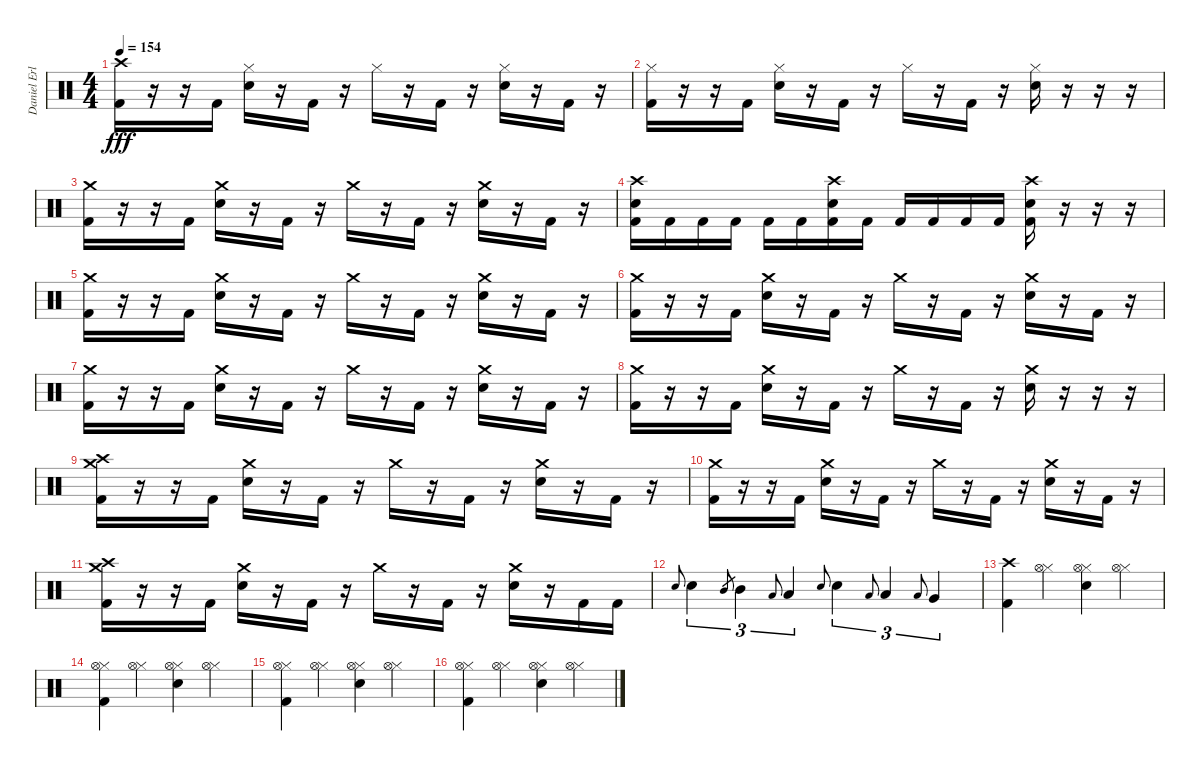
\track ("Daniel Erlandsson" "Daniel Erl") {instrument percussion}
\staff {score}
\articulation defaults
\ts (4 4)
\tempo 154
\clef neutral
\ks c
("Crash high (hit)" "Kick (hit) 2").16{dy fff} r.16 r.16 "Kick (hit) 2".16 ("Hi-Hat (closed)" "Electric Snare (hit)").16 r.16 "Kick (hit) 2".16 r.16 "Hi-Hat (closed)".16 r.16 "Kick (hit) 2".16 r.16 ("Hi-Hat (closed)" "Electric Snare (hit)").16 r.16 "Kick (hit) 2".16 r.16 |
("Hi-Hat (closed)" "Kick (hit) 2").16 r.16 r.16 "Kick (hit) 2".16 ("Hi-Hat (closed)" "Electric Snare (hit)").16 r.16 "Kick (hit) 2".16 r.16 "Hi-Hat (closed)".16 r.16 "Kick (hit) 2".16 r.16 ("Hi-Hat (closed)" "Electric Snare (hit)").16 r.16 r.16 r.16 |
("Crash medium (hit)" "Kick (hit) 2").16 r.16 r.16 "Kick (hit) 2".16 ("Crash medium (hit)" "Electric Snare (hit)").16 r.16 "Kick (hit) 2".16 r.16 "Crash medium (hit)".16 r.16 "Kick (hit) 2".16 r.16 ("Crash medium (hit)" "Electric Snare (hit)").16 r.16 "Kick (hit) 2".16 r.16 |
("Crash high (hit)" "Electric Snare (hit)" "Kick (hit) 2").16 "Kick (hit) 2".16 "Kick (hit) 2".16 "Kick (hit) 2".16 "Kick (hit) 2".16 "Kick (hit) 2".16 ("Crash high (hit)" "Electric Snare (hit)" "Kick (hit) 2").16 "Kick (hit) 2".16 "Kick (hit) 2".16 "Kick (hit) 2".16 "Kick (hit) 2".16 "Kick (hit) 2".16 ("Crash high (hit)" "Electric Snare (hit)" "Kick (hit) 2").16 r.16 r.16 r.16 |
("Crash medium (hit)" "Kick (hit) 2").16 r.16 r.16 "Kick (hit) 2".16 ("Crash medium (hit)" "Electric Snare (hit)").16 r.16 "Kick (hit) 2".16 r.16 "Crash medium (hit)".16 r.16 "Kick (hit) 2".16 r.16 ("Crash medium (hit)" "Electric Snare (hit)").16 r.16 "Kick (hit) 2".16 r.16 |
("Crash medium (hit)" "Kick (hit) 2").16 r.16 r.16 "Kick (hit) 2".16 ("Crash medium (hit)" "Electric Snare (hit)").16 r.16 "Kick (hit) 2".16 r.16 "Crash medium (hit)".16 r.16 "Kick (hit) 2".16 r.16 ("Crash medium (hit)" "Electric Snare (hit)").16 r.16 "Kick (hit) 2".16 r.16 |
("Crash medium (hit)" "Kick (hit) 2").16 r.16 r.16 "Kick (hit) 2".16 ("Crash medium (hit)" "Electric Snare (hit)").16 r.16 "Kick (hit) 2".16 r.16 "Crash medium (hit)".16 r.16 "Kick (hit) 2".16 r.16 ("Crash medium (hit)" "Electric Snare (hit)").16 r.16 "Kick (hit) 2".16 r.16 |
("Crash medium (hit)" "Kick (hit) 2").16 r.16 r.16 "Kick (hit) 2".16 ("Crash medium (hit)" "Electric Snare (hit)").16 r.16 "Kick (hit) 2".16 r.16 "Crash medium (hit)".16 r.16 "Kick (hit) 2".16 r.16 ("Crash medium (hit)" "Electric Snare (hit)").16 r.16 r.16 r.16 |
("Crash medium (hit)" "Crash high (hit)" "Kick (hit) 2").16 r.16 r.16 "Kick (hit) 2".16 ("Crash medium (hit)" "Electric Snare (hit)").16 r.16 "Kick (hit) 2".16 r.16 "Crash medium (hit)".16 r.16 "Kick (hit) 2".16 r.16 ("Crash medium (hit)" "Electric Snare (hit)").16 r.16 "Kick (hit) 2".16 r.16 |
("Crash medium (hit)" "Kick (hit) 2").16 r.16 r.16 "Kick (hit) 2".16 ("Crash medium (hit)" "Electric Snare (hit)").16 r.16 "Kick (hit) 2".16 r.16 "Crash medium (hit)".16 r.16 "Kick (hit) 2".16 r.16 ("Crash medium (hit)" "Electric Snare (hit)").16 r.16 "Kick (hit) 2".16 r.16 |
("Crash medium (hit)" "Crash high (hit)" "Kick (hit) 2").16 r.16 r.16 "Kick (hit) 2".16 ("Crash medium (hit)" "Electric Snare (hit)").16 r.16 "Kick (hit) 2".16 r.16 "Crash medium (hit)".16 r.16 "Kick (hit) 2".16 r.16 ("Crash medium (hit)" "Electric Snare (hit)").16 r.16 "Kick (hit) 2".16 "Kick (hit) 2".16 |
"Electric Snare (hit)".8{gr onbeat} "Electric Snare (hit)".4{tu (3 2)} "Mid Tom (hit)".8{gr} "Mid Tom (hit)".4{tu (3 2)} "Low Tom (hit)".8{gr onbeat} "Low Tom (hit)".4{tu (3 2)} "Electric Snare (hit)".8{gr onbeat} "Electric Snare (hit)".4{tu (3 2)} "Low Floor Tom (hit)".8{gr onbeat} "Low Tom (hit)".4{tu (3 2)} "Low Floor Tom (hit)".8{gr onbeat} "Very Low Tom (hit)".4{tu (3 2)} |
("Crash high (hit)" "Kick (hit) 2").4 ("Hi-Hat (closed)" "Hi-Hat (open)").4 ("Hi-Hat (closed)" "Hi-Hat (open)" "Electric Snare (hit)").4 ("Hi-Hat (closed)" "Hi-Hat (open)").4 |
("Hi-Hat (closed)" "Hi-Hat (open)" "Kick (hit) 2").4 ("Hi-Hat (closed)" "Hi-Hat (open)").4 ("Hi-Hat (closed)" "Hi-Hat (open)" "Electric Snare (hit)").4 ("Hi-Hat (closed)" "Hi-Hat (open)").4 |
("Hi-Hat (closed)" "Hi-Hat (open)" "Kick (hit) 2").4 ("Hi-Hat (closed)" "Hi-Hat (open)").4 ("Hi-Hat (closed)" "Hi-Hat (open)" "Electric Snare (hit)").4 ("Hi-Hat (closed)" "Hi-Hat (open)").4 |
("Hi-Hat (closed)" "Hi-Hat (open)" "Kick (hit) 2").4 ("Hi-Hat (closed)" "Hi-Hat (open)").4 ("Hi-Hat (closed)" "Hi-Hat (open)" "Electric Snare (hit)").4 ("Hi-Hat (closed)" "Hi-Hat (open)").4
